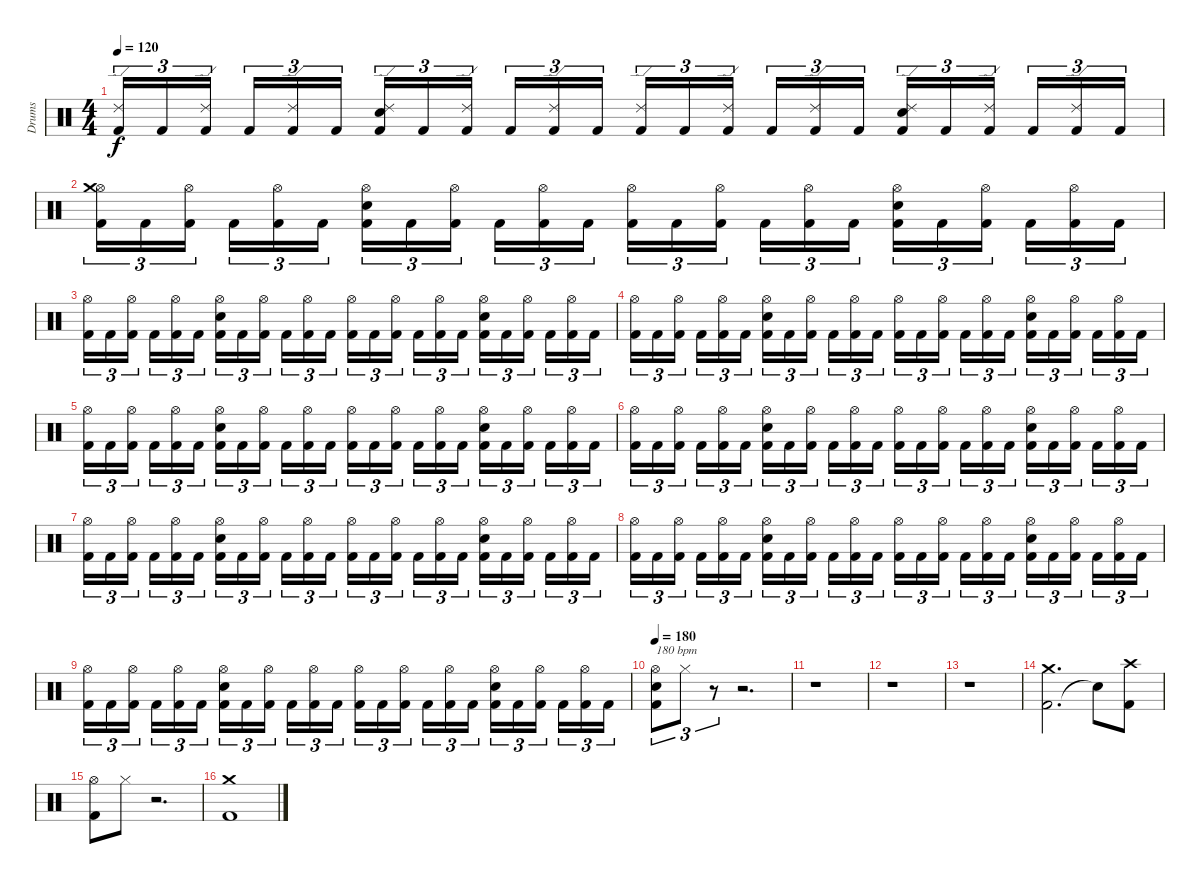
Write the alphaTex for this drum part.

\track ("Drums" "Drums") {instrument percussion}
\staff {score}
\articulation defaults
\ts (4 4)
\tempo 120
\clef neutral
\ks c
("Kick (hit) 2" "Ride (edge) 2").16{tu (3 2) dy f} "Kick (hit) 2".16{tu (3 2)} ("Kick (hit) 2" "Ride (edge) 2").16{tu (3 2)} "Kick (hit) 2".16{tu (3 2)} ("Kick (hit) 2" "Ride (edge) 2").16{tu (3 2)} "Kick (hit) 2".16{tu (3 2)} ("Kick (hit) 2" "Snare (hit) 2" "Ride (edge) 2").16{tu (3 2)} "Kick (hit) 2".16{tu (3 2)} ("Kick (hit) 2" "Ride (edge) 2").16{tu (3 2)} "Kick (hit) 2".16{tu (3 2)} ("Kick (hit) 2" "Ride (edge) 2").16{tu (3 2)} "Kick (hit) 2".16{tu (3 2)} ("Kick (hit) 2" "Ride (edge) 2").16{tu (3 2)} "Kick (hit) 2".16{tu (3 2)} ("Kick (hit) 2" "Ride (edge) 2").16{tu (3 2)} "Kick (hit) 2".16{tu (3 2)} ("Kick (hit) 2" "Ride (edge) 2").16{tu (3 2)} "Kick (hit) 2".16{tu (3 2)} ("Kick (hit) 2" "Snare (hit) 2" "Ride (edge) 2").16{tu (3 2)} "Kick (hit) 2".16{tu (3 2)} ("Kick (hit) 2" "Ride (edge) 2").16{tu (3 2)} "Kick (hit) 2".16{tu (3 2)} ("Kick (hit) 2" "Ride (edge) 2").16{tu (3 2)} "Kick (hit) 2".16{tu (3 2)} |
("Kick (hit) 2" "Hi-Hat (open)" "Crash medium (hit)").16{tu (3 2)} "Kick (hit) 2".16{tu (3 2)} ("Kick (hit) 2" "Hi-Hat (open)").16{tu (3 2)} "Kick (hit) 2".16{tu (3 2)} ("Kick (hit) 2" "Hi-Hat (open)").16{tu (3 2)} "Kick (hit) 2".16{tu (3 2)} ("Kick (hit) 2" "Snare (hit) 2" "Hi-Hat (open)").16{tu (3 2)} "Kick (hit) 2".16{tu (3 2)} ("Kick (hit) 2" "Hi-Hat (open)").16{tu (3 2)} "Kick (hit) 2".16{tu (3 2)} ("Kick (hit) 2" "Hi-Hat (open)").16{tu (3 2)} "Kick (hit) 2".16{tu (3 2)} ("Kick (hit) 2" "Hi-Hat (open)").16{tu (3 2)} "Kick (hit) 2".16{tu (3 2)} ("Kick (hit) 2" "Hi-Hat (open)").16{tu (3 2)} "Kick (hit) 2".16{tu (3 2)} ("Kick (hit) 2" "Hi-Hat (open)").16{tu (3 2)} "Kick (hit) 2".16{tu (3 2)} ("Kick (hit) 2" "Snare (hit) 2" "Hi-Hat (open)").16{tu (3 2)} "Kick (hit) 2".16{tu (3 2)} ("Kick (hit) 2" "Hi-Hat (open)").16{tu (3 2)} "Kick (hit) 2".16{tu (3 2)} ("Kick (hit) 2" "Hi-Hat (open)").16{tu (3 2)} "Kick (hit) 2".16{tu (3 2)} |
("Kick (hit) 2" "Hi-Hat (open)").16{tu (3 2)} "Kick (hit) 2".16{tu (3 2)} ("Kick (hit) 2" "Hi-Hat (open)").16{tu (3 2)} "Kick (hit) 2".16{tu (3 2)} ("Kick (hit) 2" "Hi-Hat (open)").16{tu (3 2)} "Kick (hit) 2".16{tu (3 2)} ("Kick (hit) 2" "Snare (hit) 2" "Hi-Hat (open)").16{tu (3 2)} "Kick (hit) 2".16{tu (3 2)} ("Kick (hit) 2" "Hi-Hat (open)").16{tu (3 2)} "Kick (hit) 2".16{tu (3 2)} ("Kick (hit) 2" "Hi-Hat (open)").16{tu (3 2)} "Kick (hit) 2".16{tu (3 2)} ("Kick (hit) 2" "Hi-Hat (open)").16{tu (3 2)} "Kick (hit) 2".16{tu (3 2)} ("Kick (hit) 2" "Hi-Hat (open)").16{tu (3 2)} "Kick (hit) 2".16{tu (3 2)} ("Kick (hit) 2" "Hi-Hat (open)").16{tu (3 2)} "Kick (hit) 2".16{tu (3 2)} ("Kick (hit) 2" "Snare (hit) 2" "Hi-Hat (open)").16{tu (3 2)} "Kick (hit) 2".16{tu (3 2)} ("Kick (hit) 2" "Hi-Hat (open)").16{tu (3 2)} "Kick (hit) 2".16{tu (3 2)} ("Kick (hit) 2" "Hi-Hat (open)").16{tu (3 2)} "Kick (hit) 2".16{tu (3 2)} |
("Kick (hit) 2" "Hi-Hat (open)").16{tu (3 2)} "Kick (hit) 2".16{tu (3 2)} ("Kick (hit) 2" "Hi-Hat (open)").16{tu (3 2)} "Kick (hit) 2".16{tu (3 2)} ("Kick (hit) 2" "Hi-Hat (open)").16{tu (3 2)} "Kick (hit) 2".16{tu (3 2)} ("Kick (hit) 2" "Snare (hit) 2" "Hi-Hat (open)").16{tu (3 2)} "Kick (hit) 2".16{tu (3 2)} ("Kick (hit) 2" "Hi-Hat (open)").16{tu (3 2)} "Kick (hit) 2".16{tu (3 2)} ("Kick (hit) 2" "Hi-Hat (open)").16{tu (3 2)} "Kick (hit) 2".16{tu (3 2)} ("Kick (hit) 2" "Hi-Hat (open)").16{tu (3 2)} "Kick (hit) 2".16{tu (3 2)} ("Kick (hit) 2" "Hi-Hat (open)").16{tu (3 2)} "Kick (hit) 2".16{tu (3 2)} ("Kick (hit) 2" "Hi-Hat (open)").16{tu (3 2)} "Kick (hit) 2".16{tu (3 2)} ("Kick (hit) 2" "Snare (hit) 2" "Hi-Hat (open)").16{tu (3 2)} "Kick (hit) 2".16{tu (3 2)} ("Kick (hit) 2" "Hi-Hat (open)").16{tu (3 2)} "Kick (hit) 2".16{tu (3 2)} ("Kick (hit) 2" "Hi-Hat (open)").16{tu (3 2)} "Kick (hit) 2".16{tu (3 2)} |
("Kick (hit) 2" "Hi-Hat (open)").16{tu (3 2)} "Kick (hit) 2".16{tu (3 2)} ("Kick (hit) 2" "Hi-Hat (open)").16{tu (3 2)} "Kick (hit) 2".16{tu (3 2)} ("Kick (hit) 2" "Hi-Hat (open)").16{tu (3 2)} "Kick (hit) 2".16{tu (3 2)} ("Kick (hit) 2" "Snare (hit) 2" "Hi-Hat (open)").16{tu (3 2)} "Kick (hit) 2".16{tu (3 2)} ("Kick (hit) 2" "Hi-Hat (open)").16{tu (3 2)} "Kick (hit) 2".16{tu (3 2)} ("Kick (hit) 2" "Hi-Hat (open)").16{tu (3 2)} "Kick (hit) 2".16{tu (3 2)} ("Kick (hit) 2" "Hi-Hat (open)").16{tu (3 2)} "Kick (hit) 2".16{tu (3 2)} ("Kick (hit) 2" "Hi-Hat (open)").16{tu (3 2)} "Kick (hit) 2".16{tu (3 2)} ("Kick (hit) 2" "Hi-Hat (open)").16{tu (3 2)} "Kick (hit) 2".16{tu (3 2)} ("Kick (hit) 2" "Snare (hit) 2" "Hi-Hat (open)").16{tu (3 2)} "Kick (hit) 2".16{tu (3 2)} ("Kick (hit) 2" "Hi-Hat (open)").16{tu (3 2)} "Kick (hit) 2".16{tu (3 2)} ("Kick (hit) 2" "Hi-Hat (open)").16{tu (3 2)} "Kick (hit) 2".16{tu (3 2)} |
("Kick (hit) 2" "Hi-Hat (open)").16{tu (3 2)} "Kick (hit) 2".16{tu (3 2)} ("Kick (hit) 2" "Hi-Hat (open)").16{tu (3 2)} "Kick (hit) 2".16{tu (3 2)} ("Kick (hit) 2" "Hi-Hat (open)").16{tu (3 2)} "Kick (hit) 2".16{tu (3 2)} ("Kick (hit) 2" "Snare (hit) 2" "Hi-Hat (open)").16{tu (3 2)} "Kick (hit) 2".16{tu (3 2)} ("Kick (hit) 2" "Hi-Hat (open)").16{tu (3 2)} "Kick (hit) 2".16{tu (3 2)} ("Kick (hit) 2" "Hi-Hat (open)").16{tu (3 2)} "Kick (hit) 2".16{tu (3 2)} ("Kick (hit) 2" "Hi-Hat (open)").16{tu (3 2)} "Kick (hit) 2".16{tu (3 2)} ("Kick (hit) 2" "Hi-Hat (open)").16{tu (3 2)} "Kick (hit) 2".16{tu (3 2)} ("Kick (hit) 2" "Hi-Hat (open)").16{tu (3 2)} "Kick (hit) 2".16{tu (3 2)} ("Kick (hit) 2" "Snare (hit) 2" "Hi-Hat (open)").16{tu (3 2)} "Kick (hit) 2".16{tu (3 2)} ("Kick (hit) 2" "Hi-Hat (open)").16{tu (3 2)} "Kick (hit) 2".16{tu (3 2)} ("Kick (hit) 2" "Hi-Hat (open)").16{tu (3 2)} "Kick (hit) 2".16{tu (3 2)} |
("Kick (hit) 2" "Hi-Hat (open)").16{tu (3 2)} "Kick (hit) 2".16{tu (3 2)} ("Kick (hit) 2" "Hi-Hat (open)").16{tu (3 2)} "Kick (hit) 2".16{tu (3 2)} ("Kick (hit) 2" "Hi-Hat (open)").16{tu (3 2)} "Kick (hit) 2".16{tu (3 2)} ("Kick (hit) 2" "Snare (hit) 2" "Hi-Hat (open)").16{tu (3 2)} "Kick (hit) 2".16{tu (3 2)} ("Kick (hit) 2" "Hi-Hat (open)").16{tu (3 2)} "Kick (hit) 2".16{tu (3 2)} ("Kick (hit) 2" "Hi-Hat (open)").16{tu (3 2)} "Kick (hit) 2".16{tu (3 2)} ("Kick (hit) 2" "Hi-Hat (open)").16{tu (3 2)} "Kick (hit) 2".16{tu (3 2)} ("Kick (hit) 2" "Hi-Hat (open)").16{tu (3 2)} "Kick (hit) 2".16{tu (3 2)} ("Kick (hit) 2" "Hi-Hat (open)").16{tu (3 2)} "Kick (hit) 2".16{tu (3 2)} ("Kick (hit) 2" "Snare (hit) 2" "Hi-Hat (open)").16{tu (3 2)} "Kick (hit) 2".16{tu (3 2)} ("Kick (hit) 2" "Hi-Hat (open)").16{tu (3 2)} "Kick (hit) 2".16{tu (3 2)} ("Kick (hit) 2" "Hi-Hat (open)").16{tu (3 2)} "Kick (hit) 2".16{tu (3 2)} |
("Kick (hit) 2" "Hi-Hat (open)").16{tu (3 2)} "Kick (hit) 2".16{tu (3 2)} ("Kick (hit) 2" "Hi-Hat (open)").16{tu (3 2)} "Kick (hit) 2".16{tu (3 2)} ("Kick (hit) 2" "Hi-Hat (open)").16{tu (3 2)} "Kick (hit) 2".16{tu (3 2)} ("Kick (hit) 2" "Snare (hit) 2" "Hi-Hat (open)").16{tu (3 2)} "Kick (hit) 2".16{tu (3 2)} ("Kick (hit) 2" "Hi-Hat (open)").16{tu (3 2)} "Kick (hit) 2".16{tu (3 2)} ("Kick (hit) 2" "Hi-Hat (open)").16{tu (3 2)} "Kick (hit) 2".16{tu (3 2)} ("Kick (hit) 2" "Hi-Hat (open)").16{tu (3 2)} "Kick (hit) 2".16{tu (3 2)} ("Kick (hit) 2" "Hi-Hat (open)").16{tu (3 2)} "Kick (hit) 2".16{tu (3 2)} ("Kick (hit) 2" "Hi-Hat (open)").16{tu (3 2)} "Kick (hit) 2".16{tu (3 2)} ("Kick (hit) 2" "Snare (hit) 2" "Hi-Hat (open)").16{tu (3 2)} "Kick (hit) 2".16{tu (3 2)} ("Kick (hit) 2" "Hi-Hat (open)").16{tu (3 2)} "Kick (hit) 2".16{tu (3 2)} ("Kick (hit) 2" "Hi-Hat (open)").16{tu (3 2)} "Kick (hit) 2".16{tu (3 2)} |
("Kick (hit) 2" "Hi-Hat (open)").16{tu (3 2)} "Kick (hit) 2".16{tu (3 2)} ("Kick (hit) 2" "Hi-Hat (open)").16{tu (3 2)} "Kick (hit) 2".16{tu (3 2)} ("Kick (hit) 2" "Hi-Hat (open)").16{tu (3 2)} "Kick (hit) 2".16{tu (3 2)} ("Kick (hit) 2" "Snare (hit) 2" "Hi-Hat (open)").16{tu (3 2)} "Kick (hit) 2".16{tu (3 2)} ("Kick (hit) 2" "Hi-Hat (open)").16{tu (3 2)} "Kick (hit) 2".16{tu (3 2)} ("Kick (hit) 2" "Hi-Hat (open)").16{tu (3 2)} "Kick (hit) 2".16{tu (3 2)} ("Kick (hit) 2" "Hi-Hat (open)").16{tu (3 2)} "Kick (hit) 2".16{tu (3 2)} ("Kick (hit) 2" "Hi-Hat (open)").16{tu (3 2)} "Kick (hit) 2".16{tu (3 2)} ("Kick (hit) 2" "Hi-Hat (open)").16{tu (3 2)} "Kick (hit) 2".16{tu (3 2)} ("Kick (hit) 2" "Snare (hit) 2" "Hi-Hat (open)").16{tu (3 2)} "Kick (hit) 2".16{tu (3 2)} ("Kick (hit) 2" "Hi-Hat (open)").16{tu (3 2)} "Kick (hit) 2".16{tu (3 2)} ("Kick (hit) 2" "Hi-Hat (open)").16{tu (3 2)} "Kick (hit) 2".16{tu (3 2)} |
\tempo 180
("Kick (hit) 2" "Snare (hit) 2" "Hi-Hat (open)").8{tu (3 2) txt "180 bpm"} "Hi-Hat (closed)".8{tu (3 2)} r.8{tu (3 2)} r.2{d} |
r.1 |
r.1 |
r.1 |
("Kick (hit) 2" "Crash medium (hit)").2{d} "Snare (hit)"{t}.8 ("Kick (hit) 2" "Crash high (hit)").8 |
("Kick (hit) 2" "Hi-Hat (open)").8 "Hi-Hat (closed)".8 r.2{d} |
("Kick (hit) 2" "Crash medium (hit)").1
